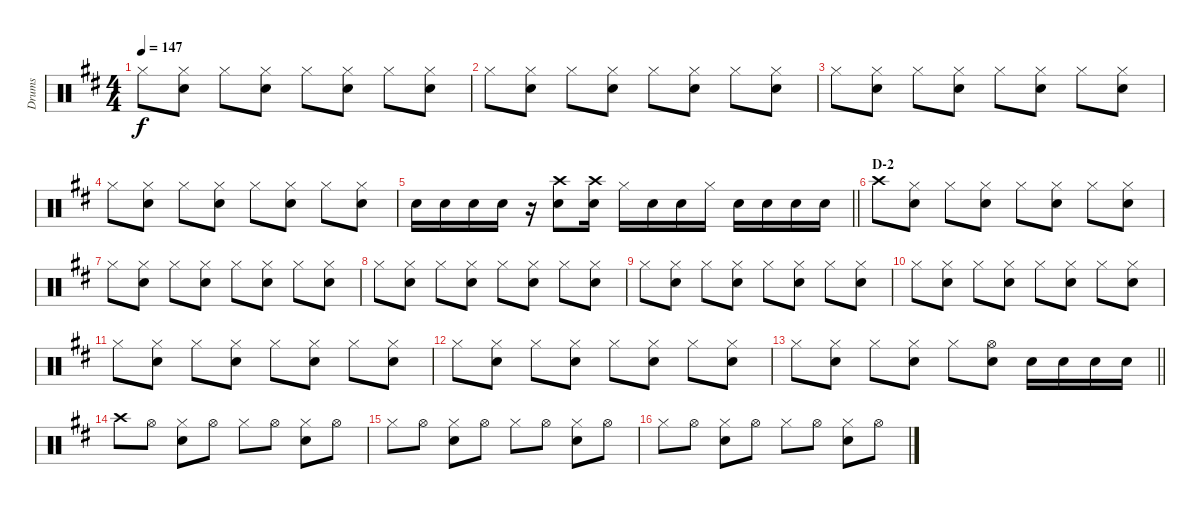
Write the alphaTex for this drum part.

\track ("Drums" "Drums") {instrument percussion}
\staff {score}
\articulation defaults
\ts (4 4)
\tempo 147
\clef neutral
\ks d "Hi-Hat (closed)".8{dy f}
("Hi-Hat (closed)" "Snare (hit) 2").8 "Hi-Hat (closed)".8 ("Hi-Hat (closed)" "Snare (hit) 2").8 "Hi-Hat (closed)".8 ("Hi-Hat (closed)" "Snare (hit) 2").8 "Hi-Hat (closed)".8 ("Hi-Hat (closed)" "Snare (hit) 2").8 |
"Hi-Hat (closed)".8 ("Hi-Hat (closed)" "Snare (hit) 2").8 "Hi-Hat (closed)".8 ("Hi-Hat (closed)" "Snare (hit) 2").8 "Hi-Hat (closed)".8 ("Hi-Hat (closed)" "Snare (hit) 2").8 "Hi-Hat (closed)".8 ("Hi-Hat (closed)" "Snare (hit) 2").8 |
"Hi-Hat (closed)".8 ("Hi-Hat (closed)" "Snare (hit) 2").8 "Hi-Hat (closed)".8 ("Hi-Hat (closed)" "Snare (hit) 2").8 "Hi-Hat (closed)".8 ("Hi-Hat (closed)" "Snare (hit) 2").8 "Hi-Hat (closed)".8 ("Hi-Hat (closed)" "Snare (hit) 2").8 |
"Hi-Hat (closed)".8 ("Hi-Hat (closed)" "Snare (hit) 2").8 "Hi-Hat (closed)".8 ("Hi-Hat (closed)" "Snare (hit) 2").8 "Hi-Hat (closed)".8 ("Hi-Hat (closed)" "Snare (hit) 2").8 "Hi-Hat (closed)".8 ("Hi-Hat (closed)" "Snare (hit) 2").8 |
\barLineRight lightlight "Snare (hit) 2".16 "Snare (hit) 2".16 "Snare (hit) 2".16 "Snare (hit) 2".16
r.16 ("Crash high (hit)" "Snare (hit) 2").8 ("Crash high (hit)" "Snare (hit) 2").16 "Hi-Hat (closed)".16 "Snare (hit) 2".16 "Snare (hit) 2".16 "Hi-Hat (closed)".16 "Snare (hit) 2".16 "Snare (hit) 2".16 "Snare (hit) 2".16 "Snare (hit) 2".16 |
\section ("" "D-2")
"Crash high (hit)".8 ("Hi-Hat (closed)" "Snare (hit) 2").8 "Hi-Hat (closed)".8 ("Hi-Hat (closed)" "Snare (hit) 2").8 "Hi-Hat (closed)".8 ("Hi-Hat (closed)" "Snare (hit) 2").8 "Hi-Hat (closed)".8 ("Hi-Hat (closed)" "Snare (hit) 2").8 |
"Hi-Hat (closed)".8 ("Hi-Hat (closed)" "Snare (hit) 2").8 "Hi-Hat (closed)".8 ("Hi-Hat (closed)" "Snare (hit) 2").8 "Hi-Hat (closed)".8 ("Hi-Hat (closed)" "Snare (hit) 2").8 "Hi-Hat (closed)".8 ("Hi-Hat (closed)" "Snare (hit) 2").8 |
"Hi-Hat (closed)".8 ("Hi-Hat (closed)" "Snare (hit) 2").8 "Hi-Hat (closed)".8 ("Hi-Hat (closed)" "Snare (hit) 2").8 "Hi-Hat (closed)".8 ("Hi-Hat (closed)" "Snare (hit) 2").8 "Hi-Hat (closed)".8 ("Hi-Hat (closed)" "Snare (hit) 2").8 |
"Hi-Hat (closed)".8 ("Hi-Hat (closed)" "Snare (hit) 2").8 "Hi-Hat (closed)".8 ("Hi-Hat (closed)" "Snare (hit) 2").8 "Hi-Hat (closed)".8 ("Hi-Hat (closed)" "Snare (hit) 2").8 "Hi-Hat (closed)".8 ("Hi-Hat (closed)" "Snare (hit) 2").8 |
"Hi-Hat (closed)".8 ("Hi-Hat (closed)" "Snare (hit) 2").8 "Hi-Hat (closed)".8 ("Hi-Hat (closed)" "Snare (hit) 2").8 "Hi-Hat (closed)".8 ("Hi-Hat (closed)" "Snare (hit) 2").8 "Hi-Hat (closed)".8 ("Hi-Hat (closed)" "Snare (hit) 2").8 |
"Hi-Hat (closed)".8 ("Hi-Hat (closed)" "Snare (hit) 2").8 "Hi-Hat (closed)".8 ("Hi-Hat (closed)" "Snare (hit) 2").8 "Hi-Hat (closed)".8 ("Hi-Hat (closed)" "Snare (hit) 2").8 "Hi-Hat (closed)".8 ("Hi-Hat (closed)" "Snare (hit) 2").8 |
"Hi-Hat (closed)".8 ("Hi-Hat (closed)" "Snare (hit) 2").8 "Hi-Hat (closed)".8 ("Hi-Hat (closed)" "Snare (hit) 2").8 "Hi-Hat (closed)".8 ("Hi-Hat (closed)" "Snare (hit) 2").8 "Hi-Hat (closed)".8 ("Hi-Hat (closed)" "Snare (hit) 2").8 |
\barLineRight lightlight "Hi-Hat (closed)".8
("Hi-Hat (closed)" "Snare (hit) 2").8 "Hi-Hat (closed)".8 ("Hi-Hat (closed)" "Snare (hit) 2").8 "Hi-Hat (closed)".8 ("Hi-Hat (open)" "Snare (hit) 2").8 "Snare (hit) 2".16 "Snare (hit) 2".16 "Snare (hit) 2".16 "Snare (hit) 2".16 |
"Crash high (hit)".8 "Hi-Hat (open)".8 ("Hi-Hat (closed)" "Snare (hit) 2").8 "Hi-Hat (open)".8 "Hi-Hat (closed)".8 "Hi-Hat (open)".8 ("Hi-Hat (closed)" "Snare (hit) 2").8 "Hi-Hat (open)".8 |
"Hi-Hat (closed)".8 "Hi-Hat (open)".8 ("Hi-Hat (closed)" "Snare (hit) 2").8 "Hi-Hat (open)".8 "Hi-Hat (closed)".8 "Hi-Hat (open)".8 ("Hi-Hat (closed)" "Snare (hit) 2").8 "Hi-Hat (open)".8 |
"Hi-Hat (closed)".8 "Hi-Hat (open)".8 ("Hi-Hat (closed)" "Snare (hit) 2").8 "Hi-Hat (open)".8 "Hi-Hat (closed)".8 "Hi-Hat (open)".8 ("Hi-Hat (closed)" "Snare (hit) 2").8 "Hi-Hat (open)".8
